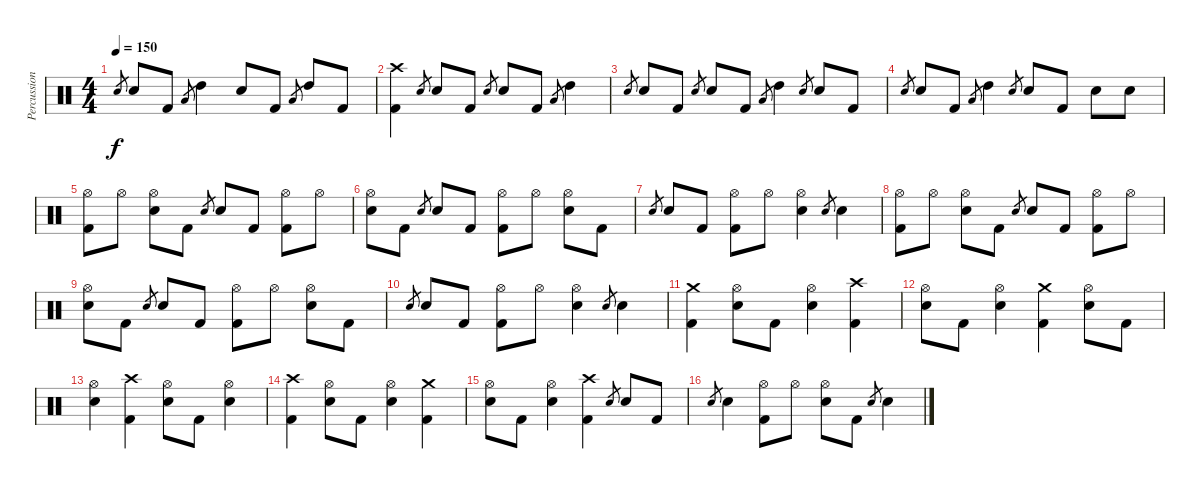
\track ("Percussion" "Percussion") {instrument percussion}
\staff {score}
\articulation defaults
\ts (4 4)
\tempo 150
\clef neutral
\ks c "Electric Snare (hit)".8{gr dy f} "Electric Snare (hit)".8 "Kick (hit) 2".8 "Low Tom (hit)".8{gr} "High Tom (hit)".4 "Electric Snare (hit)".8 "Kick (hit) 2".8 "Low Tom (hit)".8{gr} "High Tom (hit)".8 "Kick (hit) 2".8
|
("Crash high (hit)" "Kick (hit) 2").4 "Electric Snare (hit)".8{gr} "Electric Snare (hit)".8 "Kick (hit) 2".8 "Electric Snare (hit)".8{gr} "Electric Snare (hit)".8 "Kick (hit) 2".8 "Low Tom (hit)".8{gr} "High Tom (hit)".4 |
"Electric Snare (hit)".8{gr} "Electric Snare (hit)".8 "Kick (hit) 2".8 "Electric Snare (hit)".8{gr} "Electric Snare (hit)".8 "Kick (hit) 2".8 "Low Tom (hit)".8{gr} "High Tom (hit)".4 "Electric Snare (hit)".8{gr} "Electric Snare (hit)".8 "Kick (hit) 2".8 |
"Electric Snare (hit)".8{gr} "Electric Snare (hit)".8 "Kick (hit) 2".8 "Low Tom (hit)".8{gr} "High Tom (hit)".4 "Electric Snare (hit)".8{gr} "Electric Snare (hit)".8 "Kick (hit) 2".8 "Electric Snare (hit)".8 "Electric Snare (hit)".8 |
("Hi-Hat (open)" "Kick (hit) 2").8 "Hi-Hat (open)".8 ("Hi-Hat (open)" "Electric Snare (hit)").8 "Kick (hit) 2".8 "Electric Snare (hit)".8{gr} "Electric Snare (hit)".8 "Kick (hit) 2".8 ("Hi-Hat (open)" "Kick (hit) 2").8 "Hi-Hat (open)".8 |
("Hi-Hat (open)" "Electric Snare (hit)").8 "Kick (hit) 2".8 "Electric Snare (hit)".8{gr} "Electric Snare (hit)".8 "Kick (hit) 2".8 ("Hi-Hat (open)" "Kick (hit) 2").8 "Hi-Hat (open)".8 ("Hi-Hat (open)" "Electric Snare (hit)").8 "Kick (hit) 2".8 |
"Electric Snare (hit)".8{gr} "Electric Snare (hit)".8 "Kick (hit) 2".8 ("Hi-Hat (open)" "Kick (hit) 2").8 "Hi-Hat (open)".8 ("Hi-Hat (open)" "Electric Snare (hit)").4 "Electric Snare (hit)".8{gr} "Electric Snare (hit)".4 |
("Hi-Hat (open)" "Kick (hit) 2").8 "Hi-Hat (open)".8 ("Hi-Hat (open)" "Electric Snare (hit)").8 "Kick (hit) 2".8 "Electric Snare (hit)".8{gr} "Electric Snare (hit)".8 "Kick (hit) 2".8 ("Hi-Hat (open)" "Kick (hit) 2").8 "Hi-Hat (open)".8 |
("Hi-Hat (open)" "Electric Snare (hit)").8 "Kick (hit) 2".8 "Electric Snare (hit)".8{gr} "Electric Snare (hit)".8 "Kick (hit) 2".8 ("Hi-Hat (open)" "Kick (hit) 2").8 "Hi-Hat (open)".8 ("Hi-Hat (open)" "Electric Snare (hit)").8 "Kick (hit) 2".8 |
"Electric Snare (hit)".8{gr} "Electric Snare (hit)".8 "Kick (hit) 2".8 ("Hi-Hat (open)" "Kick (hit) 2").8 "Hi-Hat (open)".8 ("Hi-Hat (open)" "Electric Snare (hit)").4 "Electric Snare (hit)".8{gr} "Electric Snare (hit)".4 |
("Crash medium (hit)" "Kick (hit) 2").4 ("Hi-Hat (open)" "Electric Snare (hit)").8 "Kick (hit) 2".8 ("Hi-Hat (open)" "Electric Snare (hit)").4 ("Crash high (hit)" "Kick (hit) 2").4 |
("Hi-Hat (open)" "Electric Snare (hit)").8 "Kick (hit) 2".8 ("Hi-Hat (open)" "Electric Snare (hit)").4 ("Crash medium (hit)" "Kick (hit) 2").4 ("Hi-Hat (open)" "Electric Snare (hit)").8 "Kick (hit) 2".8 |
("Hi-Hat (open)" "Electric Snare (hit)").4 ("Crash high (hit)" "Kick (hit) 2").4 ("Hi-Hat (open)" "Electric Snare (hit)").8 "Kick (hit) 2".8 ("Hi-Hat (open)" "Electric Snare (hit)").4 |
("Crash high (hit)" "Kick (hit) 2").4 ("Hi-Hat (open)" "Electric Snare (hit)").8 "Kick (hit) 2".8 ("Hi-Hat (open)" "Electric Snare (hit)").4 ("Crash medium (hit)" "Kick (hit) 2").4 |
("Hi-Hat (open)" "Electric Snare (hit)").8 "Kick (hit) 2".8 ("Hi-Hat (open)" "Electric Snare (hit)").4 ("Crash high (hit)" "Kick (hit) 2").4 "Electric Snare (hit)".8{gr} "Electric Snare (hit)".8 "Kick (hit) 2".8 |
"Electric Snare (hit)".8{gr} "Electric Snare (hit)".4 ("Hi-Hat (open)" "Kick (hit) 2").8 "Hi-Hat (open)".8 ("Hi-Hat (open)" "Electric Snare (hit)").8 "Kick (hit) 2".8 "Electric Snare (hit)".8{gr} "Electric Snare (hit)".4
